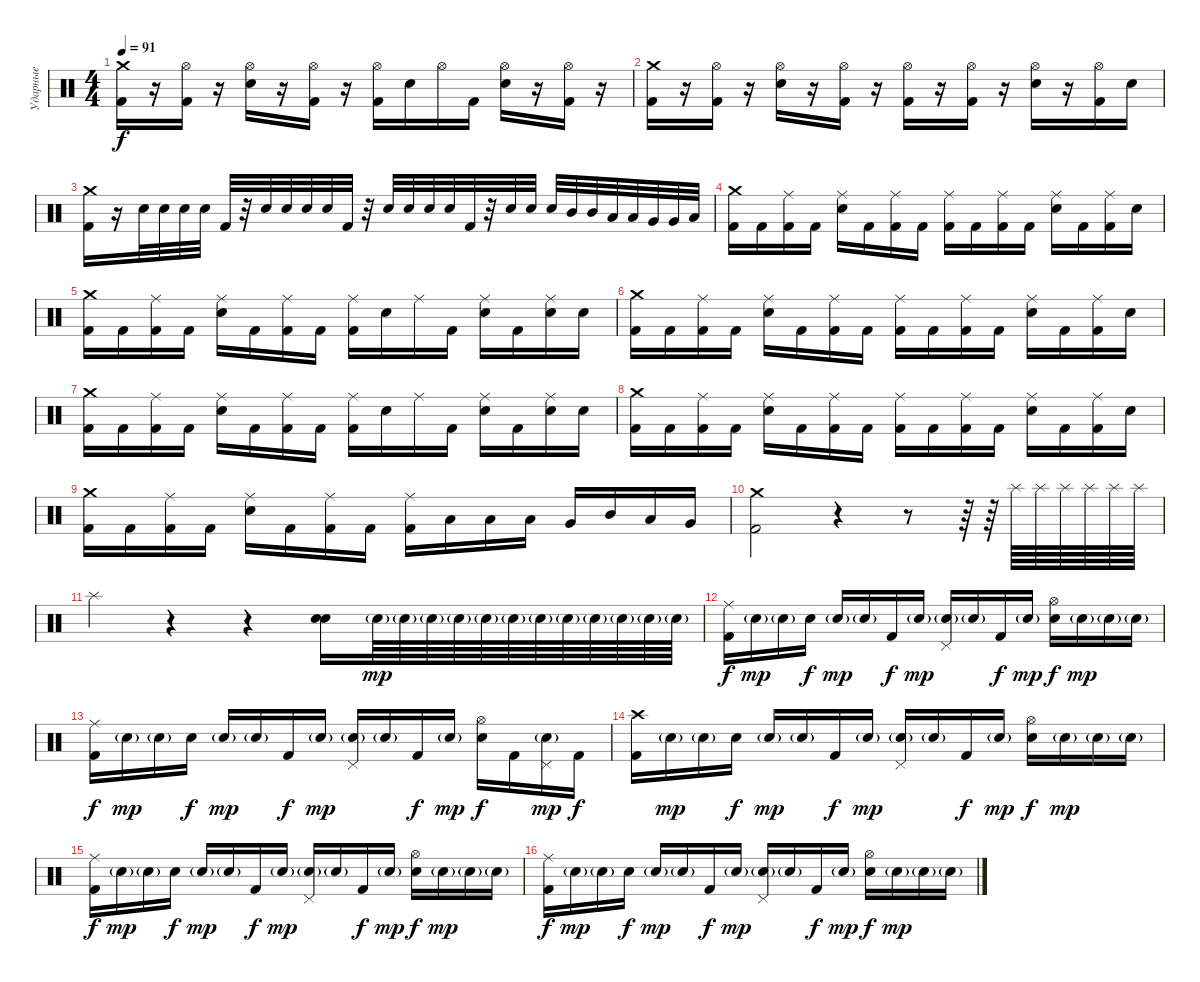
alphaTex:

\track ("Ударные" "Ударные") {instrument percussion}
\staff {score}
\articulation defaults
\ts (4 4)
\tempo 91
\clef neutral
\ks c
("Crash medium (hit)" "Kick (hit) 2").16{dy f} r.16 ("Hi-Hat (open)" "Kick (hit) 2").16 r.16 ("Hi-Hat (open)" "Snare (hit) 2").16 r.16 ("Hi-Hat (open)" "Kick (hit) 2").16 r.16 ("Hi-Hat (open)" "Kick (hit) 2").16 "Snare (hit) 2".16 "Hi-Hat (open)".16 "Kick (hit) 2".16 ("Hi-Hat (open)" "Snare (hit) 2").16 r.16 ("Hi-Hat (open)" "Kick (hit) 2").16 r.16 |
("Crash medium (hit)" "Kick (hit) 2").16 r.16 ("Hi-Hat (open)" "Kick (hit) 2").16 r.16 ("Hi-Hat (open)" "Snare (hit) 2").16 r.16 ("Hi-Hat (open)" "Kick (hit) 2").16 r.16 ("Hi-Hat (open)" "Kick (hit) 2").16 r.16 ("Hi-Hat (open)" "Kick (hit) 2").16 r.16 ("Hi-Hat (open)" "Snare (hit) 2").16 r.16 ("Hi-Hat (open)" "Kick (hit) 2").16 "Snare (hit) 2".16 |
("Crash medium (hit)" "Kick (hit) 2").16 r.16 "Snare (hit) 2".32 "Snare (hit) 2".32 "Snare (hit) 2".32 "Snare (hit) 2".32 "Kick (hit) 2".32 r.32 "Snare (hit) 2".32 "Snare (hit) 2".32 "Snare (hit) 2".32 "Snare (hit) 2".32 "Kick (hit) 2".32 r.32 "Snare (hit) 2".32 "Snare (hit) 2".32 "Snare (hit) 2".32 "Snare (hit) 2".32 "Kick (hit) 2".32 r.32 "Snare (hit) 2".32 "Snare (hit) 2".32 "Snare (hit) 2".32 "Mid Tom (hit)".32 "Mid Tom (hit)".32 "Low Tom (hit)".32 "Low Tom (hit)".32 "Very Low Tom (hit)".32 "Very Low Tom (hit)".32 "Low Tom (hit)".32 |
("Crash medium (hit)" "Kick (hit) 2").16 "Kick (hit) 2".16 ("Ride (middle)" "Kick (hit) 2").16 "Kick (hit) 2".16 ("Ride (middle)" "Snare (hit) 2").16 "Kick (hit) 2".16 ("Ride (middle)" "Kick (hit) 2").16 "Kick (hit) 2".16 ("Ride (middle)" "Kick (hit) 2").16 "Kick (hit) 2".16 ("Ride (middle)" "Kick (hit) 2").16 "Kick (hit) 2".16 ("Ride (middle)" "Snare (hit) 2").16 "Kick (hit) 2".16 ("Ride (middle)" "Kick (hit) 2").16 "Snare (hit) 2".16 |
("Crash medium (hit)" "Kick (hit) 2").16 "Kick (hit) 2".16 ("Ride (middle)" "Kick (hit) 2").16 "Kick (hit) 2".16 ("Ride (middle)" "Snare (hit) 2").16 "Kick (hit) 2".16 ("Ride (middle)" "Kick (hit) 2").16 "Kick (hit) 2".16 ("Ride (middle)" "Kick (hit) 2").16 "Snare (hit) 2".16 "Ride (middle)".16 "Kick (hit) 2".16 ("Ride (middle)" "Snare (hit) 2").16 "Kick (hit) 2".16 ("Ride (middle)" "Snare (hit) 2").16 "Snare (hit) 2".16 |
("Crash medium (hit)" "Kick (hit) 2").16 "Kick (hit) 2".16 ("Ride (middle)" "Kick (hit) 2").16 "Kick (hit) 2".16 ("Ride (middle)" "Snare (hit) 2").16 "Kick (hit) 2".16 ("Ride (middle)" "Kick (hit) 2").16 "Kick (hit) 2".16 ("Ride (middle)" "Kick (hit) 2").16 "Kick (hit) 2".16 ("Ride (middle)" "Kick (hit) 2").16 "Kick (hit) 2".16 ("Ride (middle)" "Snare (hit) 2").16 "Kick (hit) 2".16 ("Ride (middle)" "Kick (hit) 2").16 "Snare (hit) 2".16 |
("Crash medium (hit)" "Kick (hit) 2").16 "Kick (hit) 2".16 ("Ride (middle)" "Kick (hit) 2").16 "Kick (hit) 2".16 ("Ride (middle)" "Snare (hit) 2").16 "Kick (hit) 2".16 ("Ride (middle)" "Kick (hit) 2").16 "Kick (hit) 2".16 ("Ride (middle)" "Kick (hit) 2").16 "Snare (hit) 2".16 "Ride (middle)".16 "Kick (hit) 2".16 ("Ride (middle)" "Snare (hit) 2").16 "Kick (hit) 2".16 ("Ride (middle)" "Snare (hit) 2").16 "Snare (hit) 2".16 |
("Crash medium (hit)" "Kick (hit) 2").16 "Kick (hit) 2".16 ("Ride (middle)" "Kick (hit) 2").16 "Kick (hit) 2".16 ("Ride (middle)" "Snare (hit) 2").16 "Kick (hit) 2".16 ("Ride (middle)" "Kick (hit) 2").16 "Kick (hit) 2".16 ("Ride (middle)" "Kick (hit) 2").16 "Kick (hit) 2".16 ("Ride (middle)" "Kick (hit) 2").16 "Kick (hit) 2".16 ("Ride (middle)" "Snare (hit) 2").16 "Kick (hit) 2".16 ("Ride (middle)" "Kick (hit) 2").16 "Snare (hit) 2".16 |
("Crash medium (hit)" "Kick (hit) 2").16 "Kick (hit) 2".16 ("Ride (middle)" "Kick (hit) 2").16 "Kick (hit) 2".16 ("Ride (middle)" "Snare (hit) 2").16 "Kick (hit) 2".16 ("Ride (middle)" "Kick (hit) 2").16 "Kick (hit) 2".16 ("Ride (middle)" "Kick (hit) 2").16 "Low Tom (hit)".16 "Low Tom (hit)".16 "Low Tom (hit)".16 "Very Low Tom (hit)".16 "Mid Tom (hit)".16 "Low Tom (hit)".16 "Very Low Tom (hit)".16 |
("Crash medium (hit)" "Kick (hit) 2").2 r.4 r.8 r.64 r.64 "Splash (hit)".64 "Splash (hit)".64 "Splash (hit)".64 "Splash (hit)".64 "Splash (hit)".64 "Splash (hit)".64 |
"Splash (hit)".4 r.4 r.4 ("Snare (hit) 2" "Snare (hit) 2").16{bd 60} "Snare (hit) 2"{g}.64{dy mp} "Snare (hit) 2"{g}.64 "Snare (hit) 2"{g}.64 "Snare (hit) 2"{g}.64 "Snare (hit) 2"{g}.64 "Snare (hit) 2"{g}.64 "Snare (hit) 2"{g}.64 "Snare (hit) 2"{g}.64 "Snare (hit) 2"{g}.64 "Snare (hit) 2"{g}.64 "Snare (hit) 2"{g}.64 "Snare (hit) 2"{g}.64 |
("Ride (middle)" "Kick (hit) 2").16{dy f} "Snare (hit) 2"{g}.16{dy mp} "Snare (hit) 2"{g}.16 "Snare (hit) 2".16{dy f} "Snare (hit) 2"{g}.16{dy mp} "Snare (hit) 2"{g}.16 "Kick (hit) 2".16{dy f} "Snare (hit) 2"{g}.16{dy mp} ("Pedal Hi-Hat (hit)" "Snare (hit) 2"{g}).16 "Snare (hit) 2"{g}.16 "Kick (hit) 2".16{dy f} "Snare (hit) 2"{g}.16{dy mp} ("Hi-Hat (open)" "Snare (hit) 2").16{dy f} "Snare (hit) 2"{g}.16{dy mp} "Snare (hit) 2"{g}.16 "Snare (hit) 2"{g}.16 |
("Ride (middle)" "Kick (hit) 2").16{dy f} "Snare (hit) 2"{g}.16{dy mp} "Snare (hit) 2"{g}.16 "Snare (hit) 2".16{dy f} "Snare (hit) 2"{g}.16{dy mp} "Snare (hit) 2"{g}.16 "Kick (hit) 2".16{dy f} "Snare (hit) 2"{g}.16{dy mp} ("Pedal Hi-Hat (hit)" "Snare (hit) 2"{g}).16 "Snare (hit) 2"{g}.16 "Kick (hit) 2".16{dy f} "Snare (hit) 2"{g}.16{dy mp} ("Hi-Hat (open)" "Snare (hit) 2").16{dy f} "Kick (hit) 2".16 ("Pedal Hi-Hat (hit)" "Snare (hit) 2"{g}).16{dy mp} "Kick (hit) 2".16{dy f} |
("Crash high (hit)" "Kick (hit) 2").16 "Snare (hit) 2"{g}.16{dy mp} "Snare (hit) 2"{g}.16 "Snare (hit) 2".16{dy f} "Snare (hit) 2"{g}.16{dy mp} "Snare (hit) 2"{g}.16 "Kick (hit) 2".16{dy f} "Snare (hit) 2"{g}.16{dy mp} ("Pedal Hi-Hat (hit)" "Snare (hit) 2"{g}).16 "Snare (hit) 2"{g}.16 "Kick (hit) 2".16{dy f} "Snare (hit) 2"{g}.16{dy mp} ("Hi-Hat (open)" "Snare (hit) 2").16{dy f} "Snare (hit) 2"{g}.16{dy mp} "Snare (hit) 2"{g}.16 "Snare (hit) 2"{g}.16 |
("Ride (middle)" "Kick (hit) 2").16{dy f} "Snare (hit) 2"{g}.16{dy mp} "Snare (hit) 2"{g}.16 "Snare (hit) 2".16{dy f} "Snare (hit) 2"{g}.16{dy mp} "Snare (hit) 2"{g}.16 "Kick (hit) 2".16{dy f} "Snare (hit) 2"{g}.16{dy mp} ("Pedal Hi-Hat (hit)" "Snare (hit) 2"{g}).16 "Snare (hit) 2"{g}.16 "Kick (hit) 2".16{dy f} "Snare (hit) 2"{g}.16{dy mp} ("Hi-Hat (open)" "Snare (hit) 2").16{dy f} "Snare (hit) 2"{g}.16{dy mp} "Snare (hit) 2"{g}.16 "Snare (hit) 2"{g}.16 |
("Ride (middle)" "Kick (hit) 2").16{dy f} "Snare (hit) 2"{g}.16{dy mp} "Snare (hit) 2"{g}.16 "Snare (hit) 2".16{dy f} "Snare (hit) 2"{g}.16{dy mp} "Snare (hit) 2"{g}.16 "Kick (hit) 2".16{dy f} "Snare (hit) 2"{g}.16{dy mp} ("Pedal Hi-Hat (hit)" "Snare (hit) 2"{g}).16 "Snare (hit) 2"{g}.16 "Kick (hit) 2".16{dy f} "Snare (hit) 2"{g}.16{dy mp} ("Hi-Hat (open)" "Snare (hit) 2").16{dy f} "Snare (hit) 2"{g}.16{dy mp} "Snare (hit) 2"{g}.16 "Snare (hit) 2"{g}.16
